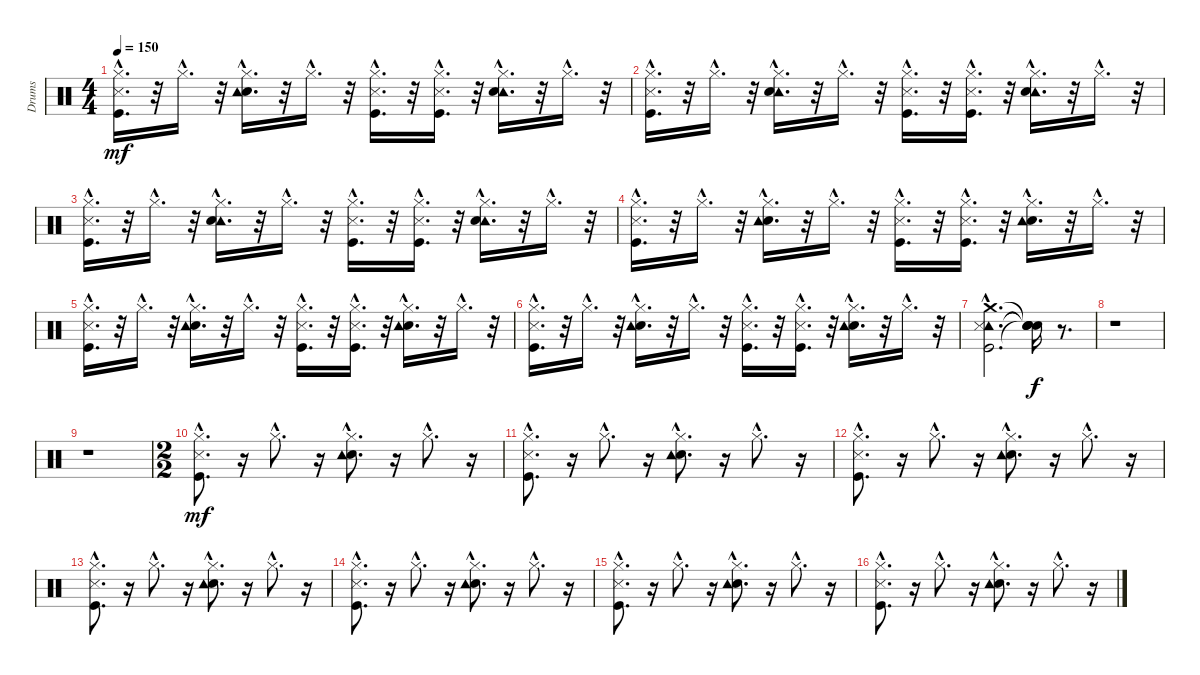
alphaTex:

\track ("Drums" "Drums") {instrument percussion}
\staff {score}
\articulation defaults
\ts (4 4)
\tempo 150
\clef neutral
\ks c
("Metronome (hit)"{hac} "Kick (hit)"{hac} "Hi-Hat (closed)"{hac}).16{d dy mf} r.32 "Hi-Hat (closed)"{hac}.16{d} r.32 ("Electric Snare (hit)"{hac} "Hi-Hat (closed)"{hac} "Tambourine (hit)"{hac}).16{d} r.32 "Hi-Hat (closed)"{hac}.16{d} r.32 ("Kick (hit)"{hac} "Hi-Hat (closed)"{hac} "Metronome (hit)"{hac}).16{d} r.32 ("Hi-Hat (closed)"{hac} "Metronome (hit)"{hac} "Kick (hit)"{hac}).16{d} r.32 ("Tambourine (hit)"{hac} "Electric Snare (hit)"{hac} "Hi-Hat (closed)"{hac}).16{d} r.32 "Hi-Hat (closed)"{hac}.16{d} r.32 |
("Metronome (hit)"{hac} "Kick (hit)"{hac} "Hi-Hat (closed)"{hac}).16{d} r.32 "Hi-Hat (closed)"{hac}.16{d} r.32 ("Tambourine (hit)"{hac} "Electric Snare (hit)"{hac} "Hi-Hat (closed)"{hac}).16{d} r.32 "Hi-Hat (closed)"{hac}.16{d} r.32 ("Metronome (hit)"{hac} "Kick (hit)"{hac} "Hi-Hat (closed)"{hac}).16{d} r.32 ("Hi-Hat (closed)"{hac} "Metronome (hit)"{hac} "Kick (hit)"{hac}).16{d} r.32 ("Tambourine (hit)"{hac} "Electric Snare (hit)"{hac} "Hi-Hat (closed)"{hac}).16{d} r.32 "Hi-Hat (closed)"{hac}.16{d} r.32 |
("Metronome (hit)"{hac} "Kick (hit)"{hac} "Hi-Hat (closed)"{hac}).16{d} r.32 "Hi-Hat (closed)"{hac}.16{d} r.32 ("Tambourine (hit)"{hac} "Electric Snare (hit)"{hac} "Hi-Hat (closed)"{hac}).16{d} r.32 "Hi-Hat (closed)"{hac}.16{d} r.32 ("Metronome (hit)"{hac} "Kick (hit)"{hac} "Hi-Hat (closed)"{hac}).16{d} r.32 ("Hi-Hat (closed)"{hac} "Metronome (hit)"{hac} "Kick (hit)"{hac}).16{d} r.32 ("Tambourine (hit)"{hac} "Electric Snare (hit)"{hac} "Hi-Hat (closed)"{hac}).16{d} r.32 "Hi-Hat (closed)"{hac}.16{d} r.32 |
("Hi-Hat (closed)"{hac} "Kick (hit)"{hac} "Metronome (hit)"{hac}).16{d} r.32 "Hi-Hat (closed)"{hac}.16{d} r.32 ("Hi-Hat (closed)"{hac} "Electric Snare (hit)"{hac} "Tambourine (hit)"{hac}).16{d} r.32 "Hi-Hat (closed)"{hac}.16{d} r.32 ("Hi-Hat (closed)"{hac} "Kick (hit)"{hac} "Metronome (hit)"{hac}).16{d} r.32 ("Kick (hit)"{hac} "Metronome (hit)"{hac} "Hi-Hat (closed)"{hac}).16{d} r.32 ("Hi-Hat (closed)"{hac} "Electric Snare (hit)"{hac} "Tambourine (hit)"{hac}).16{d} r.32 "Hi-Hat (closed)"{hac}.16{d} r.32 |
("Hi-Hat (closed)"{hac} "Kick (hit)"{hac} "Metronome (hit)"{hac}).16{d} r.32 "Hi-Hat (closed)"{hac}.16{d} r.32 ("Hi-Hat (closed)"{hac} "Electric Snare (hit)"{hac} "Tambourine (hit)"{hac}).16{d} r.32 "Hi-Hat (closed)"{hac}.16{d} r.32 ("Hi-Hat (closed)"{hac} "Kick (hit)"{hac} "Metronome (hit)"{hac}).16{d} r.32 ("Kick (hit)"{hac} "Metronome (hit)"{hac} "Hi-Hat (closed)"{hac}).16{d} r.32 ("Hi-Hat (closed)"{hac} "Electric Snare (hit)"{hac} "Tambourine (hit)"{hac}).16{d} r.32 "Hi-Hat (closed)"{hac}.16{d} r.32 |
("Hi-Hat (closed)"{hac} "Kick (hit)"{hac} "Metronome (hit)"{hac}).16{d} r.32 "Hi-Hat (closed)"{hac}.16{d} r.32 ("Hi-Hat (closed)"{hac} "Electric Snare (hit)"{hac} "Tambourine (hit)"{hac}).16{d} r.32 "Hi-Hat (closed)"{hac}.16{d} r.32 ("Hi-Hat (closed)"{hac} "Kick (hit)"{hac} "Metronome (hit)"{hac}).16{d} r.32 ("Kick (hit)"{hac} "Metronome (hit)"{hac} "Hi-Hat (closed)"{hac}).16{d} r.32 ("Hi-Hat (closed)"{hac} "Electric Snare (hit)"{hac} "Tambourine (hit)"{hac}).16{d} r.32 "Hi-Hat (closed)"{hac}.16{d} r.32 |
("Tambourine (hit)"{hac} "Crash medium (hit)"{hac} "Metronome (hit)"{hac} "Kick (hit)"{hac}).2{d} ("Snare (hit)"{t} "Snare (hit)"{t} "Snare (hit)"{t} "Snare (hit)"{t}).16{dy f} r.8{d} |
r.1 |
r.1 |
\ts (2 2)
("Metronome (hit)"{hac} "Kick (hit)"{hac} "Hi-Hat (closed)"{hac}).8{d dy mf} r.16 "Hi-Hat (closed)"{hac}.8{d} r.16 ("Electric Snare (hit)"{hac} "Tambourine (hit)"{hac} "Hi-Hat (closed)"{hac}).8{d} r.16 "Hi-Hat (closed)"{hac}.8{d} r.16 |
("Metronome (hit)"{hac} "Kick (hit)"{hac} "Hi-Hat (closed)"{hac}).8{d} r.16 "Hi-Hat (closed)"{hac}.8{d} r.16 ("Electric Snare (hit)"{hac} "Tambourine (hit)"{hac} "Hi-Hat (closed)"{hac}).8{d} r.16 "Hi-Hat (closed)"{hac}.8{d} r.16 |
("Metronome (hit)"{hac} "Kick (hit)"{hac} "Hi-Hat (closed)"{hac}).8{d} r.16 "Hi-Hat (closed)"{hac}.8{d} r.16 ("Electric Snare (hit)"{hac} "Tambourine (hit)"{hac} "Hi-Hat (closed)"{hac}).8{d} r.16 "Hi-Hat (closed)"{hac}.8{d} r.16 |
("Metronome (hit)"{hac} "Kick (hit)"{hac} "Hi-Hat (closed)"{hac}).8{d} r.16 "Hi-Hat (closed)"{hac}.8{d} r.16 ("Electric Snare (hit)"{hac} "Tambourine (hit)"{hac} "Hi-Hat (closed)"{hac}).8{d} r.16 "Hi-Hat (closed)"{hac}.8{d} r.16 |
("Metronome (hit)"{hac} "Kick (hit)"{hac} "Hi-Hat (closed)"{hac}).8{d} r.16 "Hi-Hat (closed)"{hac}.8{d} r.16 ("Electric Snare (hit)"{hac} "Tambourine (hit)"{hac} "Hi-Hat (closed)"{hac}).8{d} r.16 "Hi-Hat (closed)"{hac}.8{d} r.16 |
("Metronome (hit)"{hac} "Kick (hit)"{hac} "Hi-Hat (closed)"{hac}).8{d} r.16 "Hi-Hat (closed)"{hac}.8{d} r.16 ("Electric Snare (hit)"{hac} "Tambourine (hit)"{hac} "Hi-Hat (closed)"{hac}).8{d} r.16 "Hi-Hat (closed)"{hac}.8{d} r.16 |
("Metronome (hit)"{hac} "Kick (hit)"{hac} "Hi-Hat (closed)"{hac}).8{d} r.16 "Hi-Hat (closed)"{hac}.8{d} r.16 ("Electric Snare (hit)"{hac} "Tambourine (hit)"{hac} "Hi-Hat (closed)"{hac}).8{d} r.16 "Hi-Hat (closed)"{hac}.8{d} r.16
